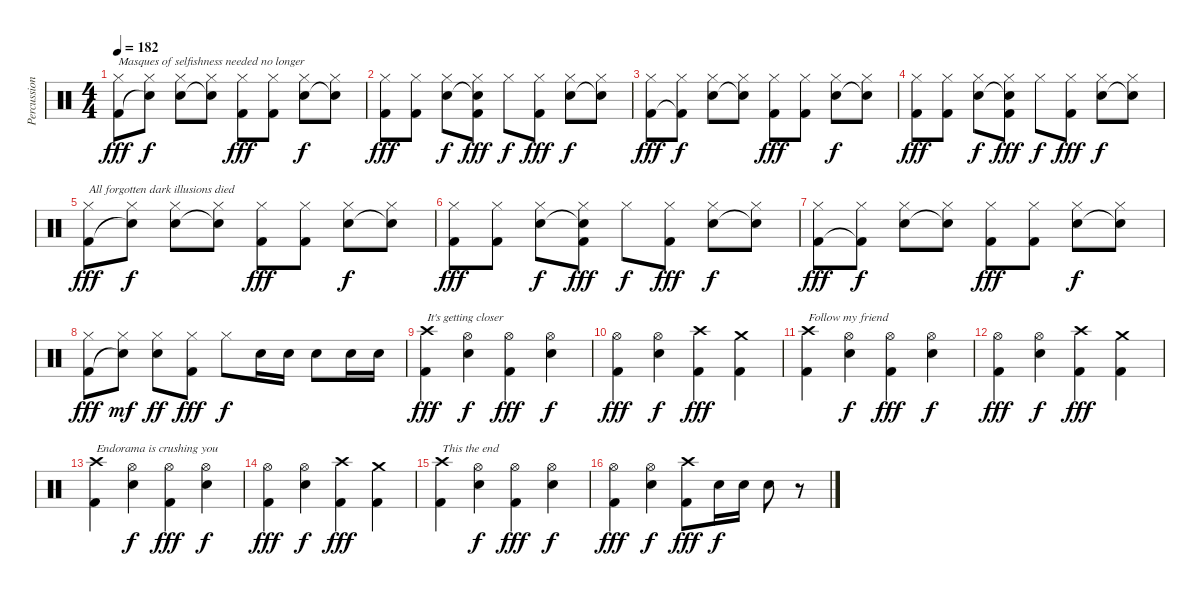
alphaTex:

\track ("Percussion" "Percussion") {instrument percussion}
\staff {score}
\articulation defaults
\ts (4 4)
\tempo 182
\clef neutral
\ks c
("Hi-Hat (closed)" "Kick (hit) 2").8{txt "Masques of selfishness needed no longer" dy fff} ("Hi-Hat (closed)" "Snare (hit)"{t}).8{dy f} ("Hi-Hat (closed)" "Snare (hit) 2").8 ("Hi-Hat (closed)" "Snare (hit)"{t}).8 ("Hi-Hat (closed)" "Kick (hit) 2").8{dy fff} ("Hi-Hat (closed)" "Kick (hit) 2").8 ("Hi-Hat (closed)" "Snare (hit) 2").8{dy f} ("Hi-Hat (closed)" "Snare (hit)"{t}).8 |
("Hi-Hat (closed)" "Kick (hit) 2").8{dy fff} ("Hi-Hat (closed)" "Kick (hit) 2").8 ("Hi-Hat (closed)" "Snare (hit) 2").8{dy f} ("Hi-Hat (closed)" "Snare (hit)"{t} "Kick (hit) 2").8{dy fff} "Hi-Hat (closed)".8{dy f} ("Hi-Hat (closed)" "Kick (hit) 2").8{dy fff} ("Hi-Hat (closed)" "Snare (hit) 2").8{dy f} ("Hi-Hat (closed)" "Snare (hit)"{t}).8 |
("Hi-Hat (closed)" "Kick (hit) 2").8{dy fff} ("Hi-Hat (closed)" "Kick (hit) 2"{t}).8{dy f} ("Hi-Hat (closed)" "Snare (hit) 2").8 ("Hi-Hat (closed)" "Snare (hit)"{t}).8 ("Hi-Hat (closed)" "Kick (hit) 2").8{dy fff} ("Hi-Hat (closed)" "Kick (hit) 2").8 ("Hi-Hat (closed)" "Snare (hit) 2").8{dy f} ("Hi-Hat (closed)" "Snare (hit)"{t}).8 |
("Hi-Hat (closed)" "Kick (hit) 2").8{dy fff} ("Hi-Hat (closed)" "Kick (hit) 2").8 ("Hi-Hat (closed)" "Snare (hit) 2").8{dy f} ("Hi-Hat (closed)" "Snare (hit)"{t} "Kick (hit) 2").8{dy fff} "Hi-Hat (closed)".8{dy f} ("Hi-Hat (closed)" "Kick (hit) 2").8{dy fff} ("Hi-Hat (closed)" "Snare (hit) 2").8{dy f} ("Hi-Hat (closed)" "Snare (hit)"{t}).8 |
("Hi-Hat (closed)" "Kick (hit) 2").8{txt "All forgotten dark illusions died" dy fff} ("Hi-Hat (closed)" "Snare (hit)"{t}).8{dy f} ("Hi-Hat (closed)" "Snare (hit) 2").8 ("Hi-Hat (closed)" "Snare (hit)"{t}).8 ("Hi-Hat (closed)" "Kick (hit) 2").8{dy fff} ("Hi-Hat (closed)" "Kick (hit) 2").8 ("Hi-Hat (closed)" "Snare (hit) 2").8{dy f} ("Hi-Hat (closed)" "Snare (hit)"{t}).8 |
("Hi-Hat (closed)" "Kick (hit) 2").8{dy fff} ("Hi-Hat (closed)" "Kick (hit) 2").8 ("Hi-Hat (closed)" "Snare (hit) 2").8{dy f} ("Hi-Hat (closed)" "Snare (hit)"{t} "Kick (hit) 2").8{dy fff} "Hi-Hat (closed)".8{dy f} ("Hi-Hat (closed)" "Kick (hit) 2").8{dy fff} ("Hi-Hat (closed)" "Snare (hit) 2").8{dy f} ("Hi-Hat (closed)" "Snare (hit)"{t}).8 |
("Hi-Hat (closed)" "Kick (hit) 2").8{dy fff} ("Hi-Hat (closed)" "Kick (hit) 2"{t}).8{dy f} ("Hi-Hat (closed)" "Snare (hit) 2").8 ("Hi-Hat (closed)" "Snare (hit)"{t}).8 ("Hi-Hat (closed)" "Kick (hit) 2").8{dy fff} ("Hi-Hat (closed)" "Kick (hit) 2").8 ("Hi-Hat (closed)" "Snare (hit) 2").8{dy f} ("Hi-Hat (closed)" "Snare (hit)"{t}).8 |
("Hi-Hat (closed)" "Kick (hit) 2").8{dy fff} ("Hi-Hat (closed)" "Snare (hit)"{t}).8{dy mf} ("Hi-Hat (closed)" "Snare (hit) 2").8{dy ff} ("Hi-Hat (closed)" "Kick (hit) 2").8{dy fff} "Hi-Hat (closed)".8{dy f} "Snare (hit) 2".16 "Snare (hit) 2".16 "Snare (hit) 2".8 "Snare (hit) 2".16 "Snare (hit) 2".16 |
("Crash high (hit)" "Kick (hit) 2").4{txt "It's getting closer" dy fff} ("Hi-Hat (open)" "Snare (hit) 2").4{dy f} ("Hi-Hat (open)" "Kick (hit) 2").4{dy fff} ("Hi-Hat (open)" "Snare (hit) 2").4{dy f} |
("Hi-Hat (open)" "Kick (hit) 2").4{dy fff} ("Hi-Hat (open)" "Snare (hit) 2").4{dy f} ("Crash high (hit)" "Kick (hit) 2").4{dy fff} ("Crash medium (hit)" "Kick (hit) 2").4 |
("Crash high (hit)" "Kick (hit) 2").4{txt "Follow my friend"} ("Hi-Hat (open)" "Snare (hit) 2").4{dy f} ("Hi-Hat (open)" "Kick (hit) 2").4{dy fff} ("Hi-Hat (open)" "Snare (hit) 2").4{dy f} |
("Hi-Hat (open)" "Kick (hit) 2").4{dy fff} ("Hi-Hat (open)" "Snare (hit) 2").4{dy f} ("Crash high (hit)" "Kick (hit) 2").4{dy fff} ("Crash medium (hit)" "Kick (hit) 2").4 |
("Crash high (hit)" "Kick (hit) 2").4{txt "Endorama is crushing you"} ("Hi-Hat (open)" "Snare (hit) 2").4{dy f} ("Hi-Hat (open)" "Kick (hit) 2").4{dy fff} ("Hi-Hat (open)" "Snare (hit) 2").4{dy f} |
("Hi-Hat (open)" "Kick (hit) 2").4{dy fff} ("Hi-Hat (open)" "Snare (hit) 2").4{dy f} ("Crash high (hit)" "Kick (hit) 2").4{dy fff} ("Crash medium (hit)" "Kick (hit) 2").4 |
("Crash high (hit)" "Kick (hit) 2").4{txt "This the end"} ("Hi-Hat (open)" "Snare (hit) 2").4{dy f} ("Hi-Hat (open)" "Kick (hit) 2").4{dy fff} ("Hi-Hat (open)" "Snare (hit) 2").4{dy f} |
("Hi-Hat (open)" "Kick (hit) 2").4{dy fff} ("Hi-Hat (open)" "Snare (hit) 2").4{dy f} ("Crash high (hit)" "Kick (hit) 2").8{dy fff} "Snare (hit) 2".16{dy f} "Snare (hit) 2".16 "Snare (hit) 2".8 r.8
